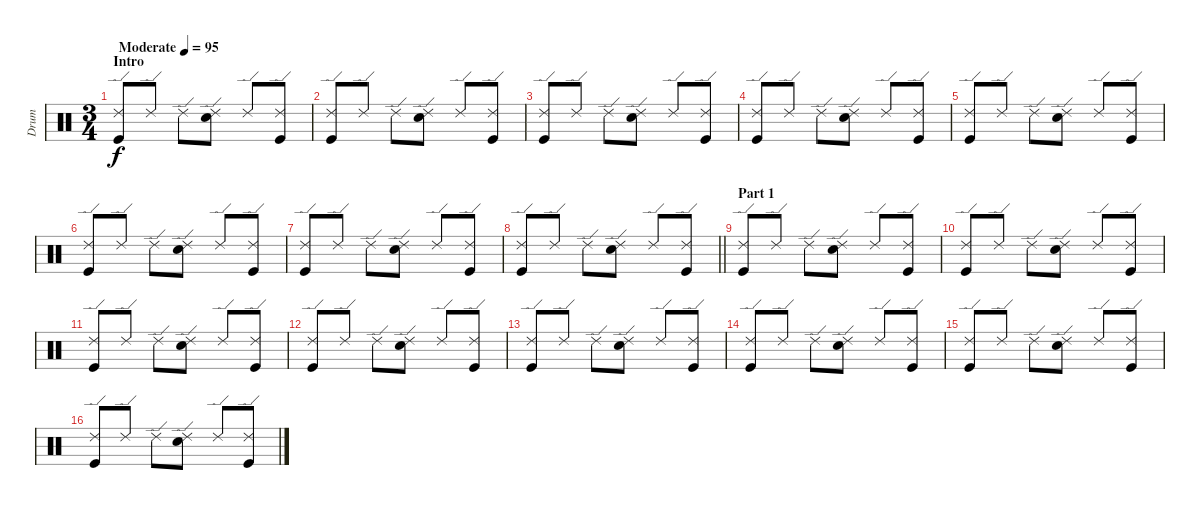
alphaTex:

\track ("Drum" "Drum") {instrument percussion}
\staff {score}
\articulation defaults
\ts (3 4)
\section ("" "Intro")
\tempo (95 "Moderate")
\clef neutral
\ks c
("Kick (hit)" "Ride (edge) 2").8{dy f} "Ride (edge) 2".8 "Ride (edge) 2".8 ("Snare (hit) 2" "Ride (edge) 2").8 "Ride (edge) 2".8 ("Kick (hit)" "Ride (edge) 2").8 |
("Kick (hit)" "Ride (edge) 2").8 "Ride (edge) 2".8 "Ride (edge) 2".8 ("Snare (hit) 2" "Ride (edge) 2").8 "Ride (edge) 2".8 ("Kick (hit)" "Ride (edge) 2").8 |
("Kick (hit)" "Ride (edge) 2").8 "Ride (edge) 2".8 "Ride (edge) 2".8 ("Snare (hit) 2" "Ride (edge) 2").8 "Ride (edge) 2".8 ("Kick (hit)" "Ride (edge) 2").8 |
("Kick (hit)" "Ride (edge) 2").8 "Ride (edge) 2".8 "Ride (edge) 2".8 ("Snare (hit) 2" "Ride (edge) 2").8 "Ride (edge) 2".8 ("Kick (hit)" "Ride (edge) 2").8 |
("Kick (hit)" "Ride (edge) 2").8 "Ride (edge) 2".8 "Ride (edge) 2".8 ("Snare (hit) 2" "Ride (edge) 2").8 "Ride (edge) 2".8 ("Kick (hit)" "Ride (edge) 2").8 |
("Kick (hit)" "Ride (edge) 2").8 "Ride (edge) 2".8 "Ride (edge) 2".8 ("Snare (hit) 2" "Ride (edge) 2").8 "Ride (edge) 2".8 ("Kick (hit)" "Ride (edge) 2").8 |
("Kick (hit)" "Ride (edge) 2").8 "Ride (edge) 2".8 "Ride (edge) 2".8 ("Snare (hit) 2" "Ride (edge) 2").8 "Ride (edge) 2".8 ("Kick (hit)" "Ride (edge) 2").8 |
\barLineRight lightlight
("Kick (hit)" "Ride (edge) 2").8 "Ride (edge) 2".8 "Ride (edge) 2".8 ("Snare (hit) 2" "Ride (edge) 2").8 "Ride (edge) 2".8 ("Kick (hit)" "Ride (edge) 2").8 |
\section ("" "Part 1")
("Kick (hit)" "Ride (edge) 2").8 "Ride (edge) 2".8 "Ride (edge) 2".8 ("Snare (hit) 2" "Ride (edge) 2").8 "Ride (edge) 2".8 ("Kick (hit)" "Ride (edge) 2").8 |
("Kick (hit)" "Ride (edge) 2").8 "Ride (edge) 2".8 "Ride (edge) 2".8 ("Snare (hit) 2" "Ride (edge) 2").8 "Ride (edge) 2".8 ("Kick (hit)" "Ride (edge) 2").8 |
("Kick (hit)" "Ride (edge) 2").8 "Ride (edge) 2".8 "Ride (edge) 2".8 ("Snare (hit) 2" "Ride (edge) 2").8 "Ride (edge) 2".8 ("Kick (hit)" "Ride (edge) 2").8 |
("Kick (hit)" "Ride (edge) 2").8 "Ride (edge) 2".8 "Ride (edge) 2".8 ("Snare (hit) 2" "Ride (edge) 2").8 "Ride (edge) 2".8 ("Kick (hit)" "Ride (edge) 2").8 |
("Kick (hit)" "Ride (edge) 2").8 "Ride (edge) 2".8 "Ride (edge) 2".8 ("Snare (hit) 2" "Ride (edge) 2").8 "Ride (edge) 2".8 ("Kick (hit)" "Ride (edge) 2").8 |
("Kick (hit)" "Ride (edge) 2").8 "Ride (edge) 2".8 "Ride (edge) 2".8 ("Snare (hit) 2" "Ride (edge) 2").8 "Ride (edge) 2".8 ("Kick (hit)" "Ride (edge) 2").8 |
("Kick (hit)" "Ride (edge) 2").8 "Ride (edge) 2".8 "Ride (edge) 2".8 ("Snare (hit) 2" "Ride (edge) 2").8 "Ride (edge) 2".8 ("Kick (hit)" "Ride (edge) 2").8 |
("Kick (hit)" "Ride (edge) 2").8 "Ride (edge) 2".8 "Ride (edge) 2".8 ("Snare (hit) 2" "Ride (edge) 2").8 "Ride (edge) 2".8 ("Kick (hit)" "Ride (edge) 2").8
